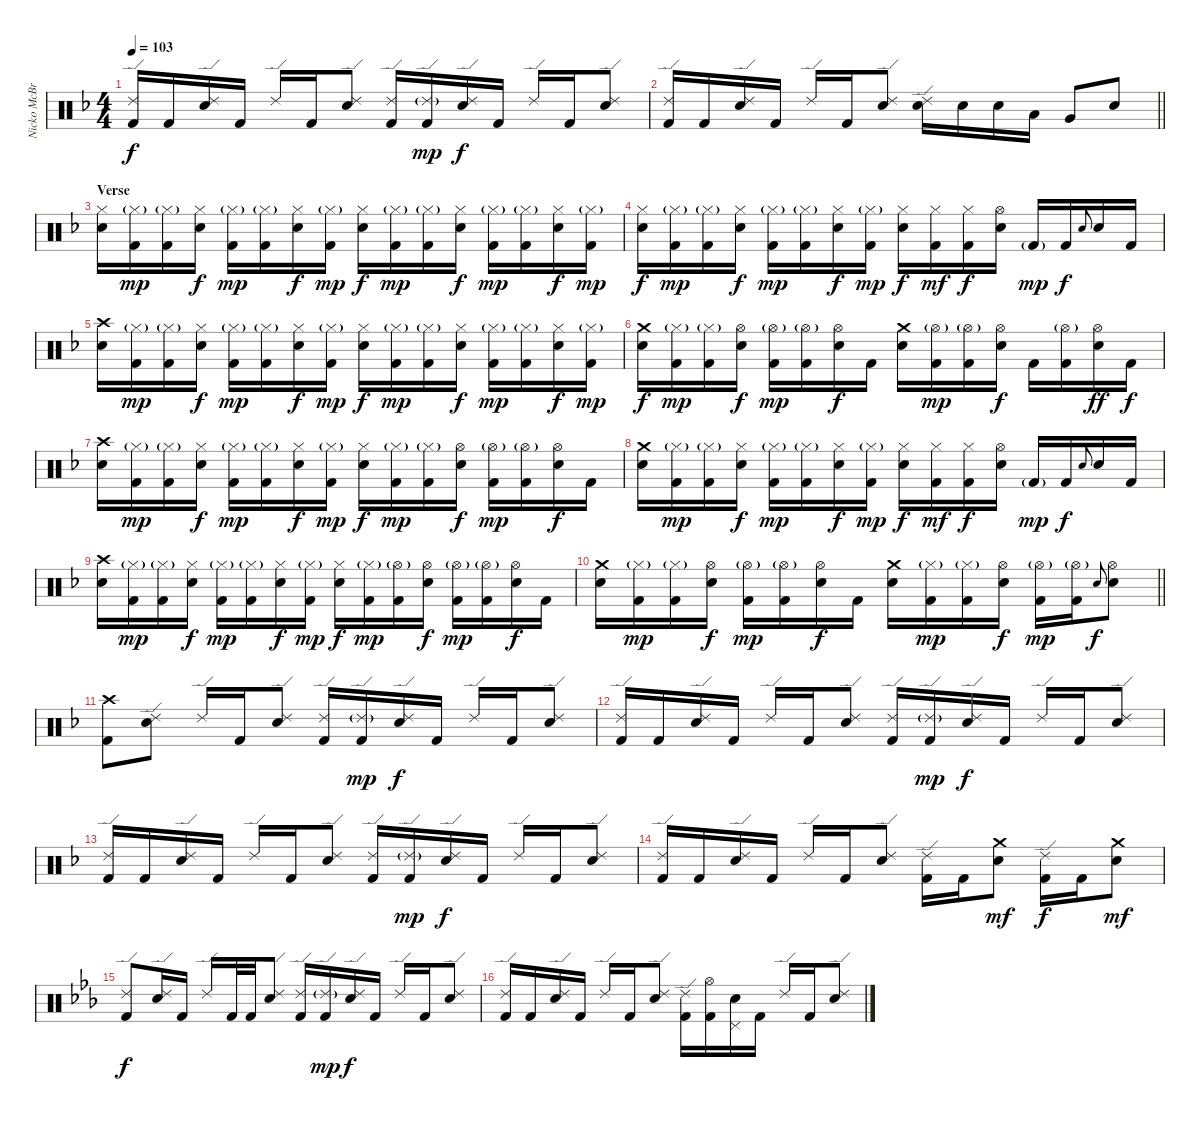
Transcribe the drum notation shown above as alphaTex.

\track ("Nicko McBrain" "Nicko McBr") {instrument percussion}
\staff {score}
\articulation defaults
\ts (4 4)
\tempo 103
\clef neutral
\ks dminor
("Ride (edge) 2" "Kick (hit) 2").16{dy f} "Kick (hit) 2".16 ("Ride (edge) 2" "Electric Snare (hit)").16 "Kick (hit) 2".16 "Ride (edge) 2".16 "Kick (hit) 2".16 ("Ride (edge) 2" "Electric Snare (hit)").8 ("Ride (edge) 2" "Kick (hit) 2").16 ("Ride (edge) 2"{g} "Kick (hit) 2").16{dy mp} ("Ride (edge) 2" "Electric Snare (hit)").16{dy f} "Kick (hit) 2".16 "Ride (edge) 2".16 "Kick (hit) 2".16 ("Ride (edge) 2" "Electric Snare (hit)").8 |
\barLineRight lightlight
("Ride (edge) 2" "Kick (hit) 2").16 "Kick (hit) 2".16 ("Ride (edge) 2" "Electric Snare (hit)").16 "Kick (hit) 2".16 "Ride (edge) 2".16 "Kick (hit) 2".16 ("Ride (edge) 2" "Electric Snare (hit)").8 ("Ride (edge) 2" "Electric Snare (hit)").16 "Electric Snare (hit)".16 "Electric Snare (hit)".16 "Low Tom (hit)".16 "Very Low Tom (hit)".8 "Electric Snare (hit)".8 |
\section ("" "Verse")
("Hi-Hat (closed)" "Electric Snare (hit)").16 ("Hi-Hat (closed)"{g} "Kick (hit) 2").16{dy mp} ("Hi-Hat (closed)"{g} "Kick (hit) 2").16 ("Hi-Hat (closed)" "Electric Snare (hit)").16{dy f} ("Hi-Hat (closed)"{g} "Kick (hit) 2").16{dy mp} ("Hi-Hat (closed)"{g} "Kick (hit) 2").16 ("Hi-Hat (closed)" "Electric Snare (hit)").16{dy f} ("Hi-Hat (closed)"{g} "Kick (hit) 2").16{dy mp} ("Hi-Hat (closed)" "Electric Snare (hit)").16{dy f} ("Hi-Hat (closed)"{g} "Kick (hit) 2").16{dy mp} ("Hi-Hat (closed)"{g} "Kick (hit) 2").16 ("Hi-Hat (closed)" "Electric Snare (hit)").16{dy f} ("Hi-Hat (closed)"{g} "Kick (hit) 2").16{dy mp} ("Hi-Hat (closed)"{g} "Kick (hit) 2").16 ("Hi-Hat (closed)" "Electric Snare (hit)").16{dy f} ("Hi-Hat (closed)"{g} "Kick (hit) 2").16{dy mp} |
("Hi-Hat (closed)" "Electric Snare (hit)").16{dy f} ("Hi-Hat (closed)"{g} "Kick (hit) 2").16{dy mp} ("Hi-Hat (closed)"{g} "Kick (hit) 2").16 ("Hi-Hat (closed)" "Electric Snare (hit)").16{dy f} ("Hi-Hat (closed)"{g} "Kick (hit) 2").16{dy mp} ("Hi-Hat (closed)"{g} "Kick (hit) 2").16 ("Hi-Hat (closed)" "Electric Snare (hit)").16{dy f} ("Hi-Hat (closed)"{g} "Kick (hit) 2").16{dy mp} ("Hi-Hat (closed)" "Electric Snare (hit)").16{dy f} ("Hi-Hat (closed)" "Kick (hit) 2").16{dy mf} ("Hi-Hat (closed)" "Kick (hit) 2").16{dy f} ("Hi-Hat (open)" "Electric Snare (hit)").16 "Kick (hit) 2"{g}.16{dy mp} "Kick (hit) 2".16{dy f} "Electric Snare (hit)".8{gr onbeat} "Electric Snare (hit)".16 "Kick (hit) 2".16 |
("Crash high (hit)" "Electric Snare (hit)").16 ("Hi-Hat (closed)"{g} "Kick (hit) 2").16{dy mp} ("Hi-Hat (closed)"{g} "Kick (hit) 2").16 ("Hi-Hat (closed)" "Electric Snare (hit)").16{dy f} ("Hi-Hat (closed)"{g} "Kick (hit) 2").16{dy mp} ("Hi-Hat (closed)"{g} "Kick (hit) 2").16 ("Hi-Hat (closed)" "Electric Snare (hit)").16{dy f} ("Hi-Hat (closed)"{g} "Kick (hit) 2").16{dy mp} ("Hi-Hat (closed)" "Electric Snare (hit)").16{dy f} ("Hi-Hat (closed)"{g} "Kick (hit) 2").16{dy mp} ("Hi-Hat (closed)"{g} "Kick (hit) 2").16 ("Hi-Hat (closed)" "Electric Snare (hit)").16{dy f} ("Hi-Hat (closed)"{g} "Kick (hit) 2").16{dy mp} ("Hi-Hat (closed)"{g} "Kick (hit) 2").16 ("Hi-Hat (closed)" "Electric Snare (hit)").16{dy f} ("Hi-Hat (closed)"{g} "Kick (hit) 2").16{dy mp} |
("Crash medium (hit)" "Electric Snare (hit)").16{dy f} ("Hi-Hat (closed)"{g} "Kick (hit) 2").16{dy mp} ("Hi-Hat (closed)"{g} "Kick (hit) 2").16 ("Hi-Hat (open)" "Electric Snare (hit)").16{dy f} ("Hi-Hat (open)"{g} "Kick (hit) 2").16{dy mp} ("Hi-Hat (open)"{g} "Kick (hit) 2").16 ("Hi-Hat (open)" "Electric Snare (hit)").16{dy f} "Kick (hit) 2".16 ("Crash medium (hit)" "Electric Snare (hit)").16 ("Hi-Hat (open)"{g} "Kick (hit) 2").16{dy mp} ("Hi-Hat (open)"{g} "Kick (hit) 2").16 ("Hi-Hat (open)" "Electric Snare (hit)").16{dy f} "Kick (hit) 2".16 ("Hi-Hat (open)"{g} "Kick (hit) 2").16 ("Hi-Hat (open)" "Electric Snare (hit)").16{dy ff} "Kick (hit) 2".16{dy f} |
("Crash high (hit)" "Electric Snare (hit)").16 ("Hi-Hat (closed)"{g} "Kick (hit) 2").16{dy mp} ("Hi-Hat (closed)"{g} "Kick (hit) 2").16 ("Hi-Hat (closed)" "Electric Snare (hit)").16{dy f} ("Hi-Hat (closed)"{g} "Kick (hit) 2").16{dy mp} ("Hi-Hat (closed)"{g} "Kick (hit) 2").16 ("Hi-Hat (closed)" "Electric Snare (hit)").16{dy f} ("Hi-Hat (closed)"{g} "Kick (hit) 2").16{dy mp} ("Hi-Hat (closed)" "Electric Snare (hit)").16{dy f} ("Hi-Hat (closed)"{g} "Kick (hit) 2").16{dy mp} ("Hi-Hat (closed)"{g} "Kick (hit) 2").16 ("Hi-Hat (open)" "Electric Snare (hit)").16{dy f} ("Hi-Hat (open)"{g} "Kick (hit) 2").16{dy mp} ("Hi-Hat (open)"{g} "Kick (hit) 2").16 ("Hi-Hat (open)" "Electric Snare (hit)").16{dy f} "Kick (hit) 2".16 |
("Crash medium (hit)" "Electric Snare (hit)").16 ("Hi-Hat (closed)"{g} "Kick (hit) 2").16{dy mp} ("Hi-Hat (closed)"{g} "Kick (hit) 2").16 ("Hi-Hat (closed)" "Electric Snare (hit)").16{dy f} ("Hi-Hat (closed)"{g} "Kick (hit) 2").16{dy mp} ("Hi-Hat (closed)"{g} "Kick (hit) 2").16 ("Hi-Hat (closed)" "Electric Snare (hit)").16{dy f} ("Hi-Hat (closed)"{g} "Kick (hit) 2").16{dy mp} ("Hi-Hat (closed)" "Electric Snare (hit)").16{dy f} ("Hi-Hat (closed)" "Kick (hit) 2").16{dy mf} ("Hi-Hat (closed)" "Kick (hit) 2").16{dy f} ("Hi-Hat (open)" "Electric Snare (hit)").16 "Kick (hit) 2"{g}.16{dy mp} "Kick (hit) 2".16{dy f} "Electric Snare (hit)".8{gr onbeat} "Electric Snare (hit)".16 "Kick (hit) 2".16 |
("Crash high (hit)" "Electric Snare (hit)").16 ("Hi-Hat (closed)"{g} "Kick (hit) 2").16{dy mp} ("Hi-Hat (closed)"{g} "Kick (hit) 2").16 ("Hi-Hat (closed)" "Electric Snare (hit)").16{dy f} ("Hi-Hat (closed)"{g} "Kick (hit) 2").16{dy mp} ("Hi-Hat (closed)"{g} "Kick (hit) 2").16 ("Hi-Hat (closed)" "Electric Snare (hit)").16{dy f} ("Hi-Hat (closed)"{g} "Kick (hit) 2").16{dy mp} ("Hi-Hat (closed)" "Electric Snare (hit)").16{dy f} ("Hi-Hat (closed)"{g} "Kick (hit) 2").16{dy mp} ("Hi-Hat (open)"{g} "Kick (hit) 2").16 ("Hi-Hat (open)" "Electric Snare (hit)").16{dy f} ("Hi-Hat (open)"{g} "Kick (hit) 2").16{dy mp} ("Hi-Hat (open)"{g} "Kick (hit) 2").16 ("Hi-Hat (open)" "Electric Snare (hit)").16{dy f} "Kick (hit) 2".16 |
\barLineRight lightlight
("Crash medium (hit)" "Electric Snare (hit)").16 ("Hi-Hat (closed)"{g} "Kick (hit) 2").16{dy mp} ("Hi-Hat (closed)"{g} "Kick (hit) 2").16 ("Hi-Hat (open)" "Electric Snare (hit)").16{dy f} ("Hi-Hat (open)"{g} "Kick (hit) 2").16{dy mp} ("Hi-Hat (open)"{g} "Kick (hit) 2").16 ("Hi-Hat (open)" "Electric Snare (hit)").16{dy f} "Kick (hit) 2".16 ("Crash medium (hit)" "Electric Snare (hit)").16 ("Hi-Hat (closed)"{g} "Kick (hit) 2").16{dy mp} ("Hi-Hat (closed)"{g} "Kick (hit) 2").16 ("Hi-Hat (open)" "Electric Snare (hit)").16{dy f} ("Hi-Hat (open)"{g} "Kick (hit) 2").16{dy mp} ("Hi-Hat (open)"{g} "Kick (hit) 2").16 "Electric Snare (hit)".8{gr onbeat dy f} ("Hi-Hat (open)" "Electric Snare (hit)").8 |
\section ("" "")
("Crash high (hit)" "Kick (hit) 2").8 ("Ride (edge) 2" "Electric Snare (hit)").8 "Ride (edge) 2".16 "Kick (hit) 2".16 ("Ride (edge) 2" "Electric Snare (hit)").8 ("Ride (edge) 2" "Kick (hit) 2").16 ("Ride (edge) 2"{g} "Kick (hit) 2").16{dy mp} ("Ride (edge) 2" "Electric Snare (hit)").16{dy f} "Kick (hit) 2".16 "Ride (edge) 2".16 "Kick (hit) 2".16 ("Ride (edge) 2" "Electric Snare (hit)").8 |
("Ride (edge) 2" "Kick (hit) 2").16 "Kick (hit) 2".16 ("Ride (edge) 2" "Electric Snare (hit)").16 "Kick (hit) 2".16 "Ride (edge) 2".16 "Kick (hit) 2".16 ("Ride (edge) 2" "Electric Snare (hit)").8 ("Ride (edge) 2" "Kick (hit) 2").16 ("Ride (edge) 2"{g} "Kick (hit) 2").16{dy mp} ("Ride (edge) 2" "Electric Snare (hit)").16{dy f} "Kick (hit) 2".16 "Ride (edge) 2".16 "Kick (hit) 2".16 ("Ride (edge) 2" "Electric Snare (hit)").8 |
("Ride (edge) 2" "Kick (hit) 2").16 "Kick (hit) 2".16 ("Ride (edge) 2" "Electric Snare (hit)").16 "Kick (hit) 2".16 "Ride (edge) 2".16 "Kick (hit) 2".16 ("Ride (edge) 2" "Electric Snare (hit)").8 ("Ride (edge) 2" "Kick (hit) 2").16 ("Ride (edge) 2"{g} "Kick (hit) 2").16{dy mp} ("Ride (edge) 2" "Electric Snare (hit)").16{dy f} "Kick (hit) 2".16 "Ride (edge) 2".16 "Kick (hit) 2".16 ("Ride (edge) 2" "Electric Snare (hit)").8 |
("Ride (edge) 2" "Kick (hit) 2").16 "Kick (hit) 2".16 ("Ride (edge) 2" "Electric Snare (hit)").16 "Kick (hit) 2".16 "Ride (edge) 2".16 "Kick (hit) 2".16 ("Ride (edge) 2" "Electric Snare (hit)").8 ("Ride (edge) 2" "Kick (hit) 2").16 "Kick (hit) 2".16 ("Crash medium (hit)" "Electric Snare (hit)").8{dy mf} ("Ride (edge) 2" "Kick (hit) 2").16{dy f} "Kick (hit) 2".16 ("Crash medium (hit)" "Electric Snare (hit)").8{dy mf} |
\ks cminor
("Ride (edge) 2" "Kick (hit) 2").8{dy f} ("Ride (edge) 2" "Electric Snare (hit)").16 "Kick (hit) 2".16 "Ride (edge) 2".16 "Kick (hit) 2".32 "Kick (hit) 2".32 ("Ride (edge) 2" "Electric Snare (hit)").8 ("Ride (edge) 2" "Kick (hit) 2").16 ("Ride (edge) 2"{g} "Kick (hit) 2").16{dy mp} ("Ride (edge) 2" "Electric Snare (hit)").16{dy f} "Kick (hit) 2".16 "Ride (edge) 2".16 "Kick (hit) 2".16 ("Ride (edge) 2" "Electric Snare (hit)").8 |
("Ride (edge) 2" "Kick (hit) 2").16 "Kick (hit) 2".16 ("Ride (edge) 2" "Electric Snare (hit)").16 "Kick (hit) 2".16 "Ride (edge) 2".16 "Kick (hit) 2".16 ("Ride (edge) 2" "Electric Snare (hit)").8 ("Ride (edge) 2" "Kick (hit) 2").16 ("Hi-Hat (open)" "Kick (hit) 2").16 ("Pedal Hi-Hat (hit)" "Electric Snare (hit)").16 "Kick (hit) 2".16 "Ride (edge) 2".16 "Kick (hit) 2".16 ("Ride (edge) 2" "Electric Snare (hit)").8
